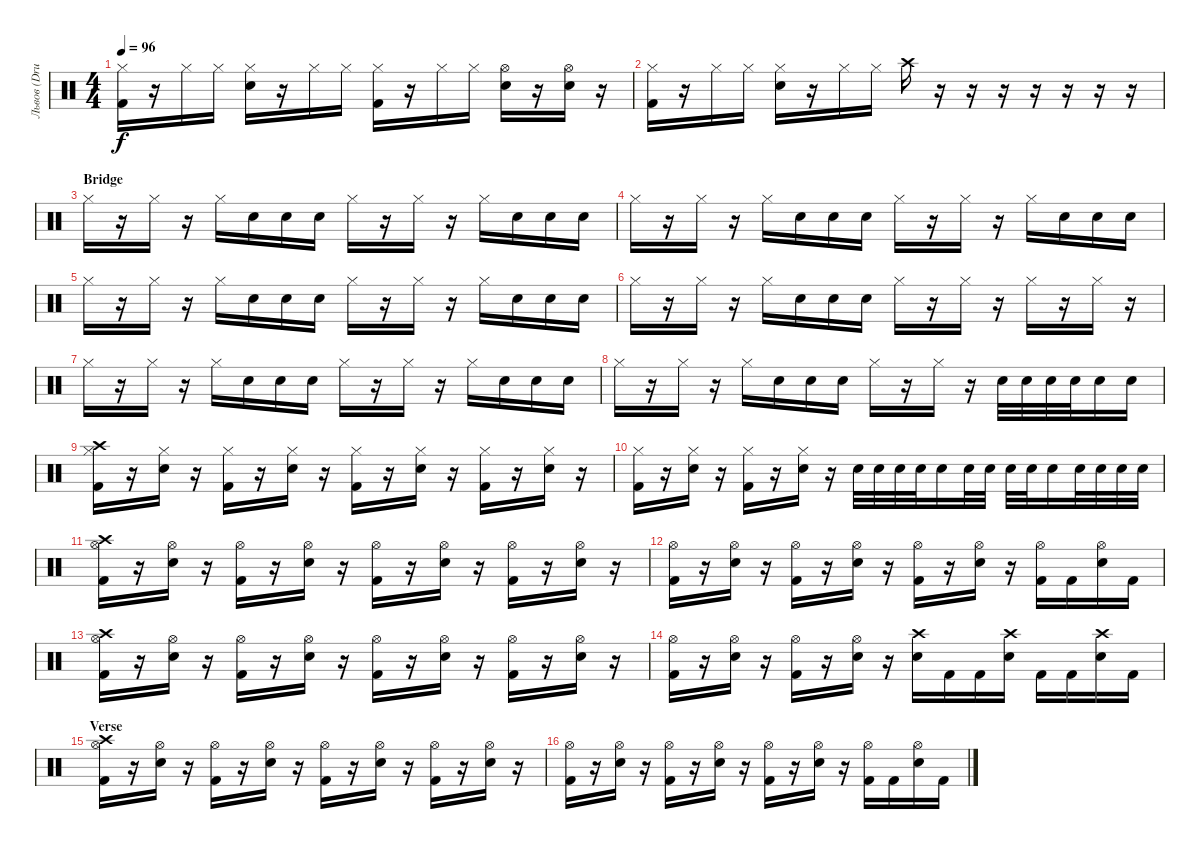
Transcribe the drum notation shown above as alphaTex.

\track ("Львов (Drums)" "Львов (Dru") {instrument percussion}
\staff {score}
\articulation defaults
\ts (4 4)
\tempo 96
\clef neutral
\ks c
("Kick (hit) 2" "Hi-Hat (closed)").16{dy f} r.16 "Hi-Hat (closed)".16 "Hi-Hat (closed)".16 ("Electric Snare (hit)" "Hi-Hat (closed)").16 r.16 "Hi-Hat (closed)".16 "Hi-Hat (closed)".16 ("Kick (hit) 2" "Hi-Hat (closed)").16 r.16 "Hi-Hat (closed)".16 "Hi-Hat (closed)".16 ("Electric Snare (hit)" "Hi-Hat (open)").16 r.16 ("Electric Snare (hit)" "Hi-Hat (open)").16 r.16 |
("Kick (hit) 2" "Hi-Hat (closed)").16 r.16 "Hi-Hat (closed)".16 "Hi-Hat (closed)".16 ("Electric Snare (hit)" "Hi-Hat (closed)").16 r.16 "Hi-Hat (closed)".16 "Hi-Hat (closed)".16 "Crash high (hit)".16 r.16 r.16 r.16 r.16 r.16 r.16 r.16 |
\section ("" "Bridge")
"Hi-Hat (closed)".16 r.16 "Hi-Hat (closed)".16 r.16 "Hi-Hat (closed)".16 "Electric Snare (hit)".16 "Electric Snare (hit)".16 "Electric Snare (hit)".16 "Hi-Hat (closed)".16 r.16 "Hi-Hat (closed)".16 r.16 "Hi-Hat (closed)".16 "Electric Snare (hit)".16 "Electric Snare (hit)".16 "Electric Snare (hit)".16 |
"Hi-Hat (closed)".16 r.16 "Hi-Hat (closed)".16 r.16 "Hi-Hat (closed)".16 "Electric Snare (hit)".16 "Electric Snare (hit)".16 "Electric Snare (hit)".16 "Hi-Hat (closed)".16 r.16 "Hi-Hat (closed)".16 r.16 "Hi-Hat (closed)".16 "Electric Snare (hit)".16 "Electric Snare (hit)".16 "Electric Snare (hit)".16 |
"Hi-Hat (closed)".16 r.16 "Hi-Hat (closed)".16 r.16 "Hi-Hat (closed)".16 "Electric Snare (hit)".16 "Electric Snare (hit)".16 "Electric Snare (hit)".16 "Hi-Hat (closed)".16 r.16 "Hi-Hat (closed)".16 r.16 "Hi-Hat (closed)".16 "Electric Snare (hit)".16 "Electric Snare (hit)".16 "Electric Snare (hit)".16 |
"Hi-Hat (closed)".16 r.16 "Hi-Hat (closed)".16 r.16 "Hi-Hat (closed)".16 "Electric Snare (hit)".16 "Electric Snare (hit)".16 "Electric Snare (hit)".16 "Hi-Hat (closed)".16 r.16 "Hi-Hat (closed)".16 r.16 "Hi-Hat (closed)".16 r.16 "Hi-Hat (closed)".16 r.16 |
"Hi-Hat (closed)".16 r.16 "Hi-Hat (closed)".16 r.16 "Hi-Hat (closed)".16 "Electric Snare (hit)".16 "Electric Snare (hit)".16 "Electric Snare (hit)".16 "Hi-Hat (closed)".16 r.16 "Hi-Hat (closed)".16 r.16 "Hi-Hat (closed)".16 "Electric Snare (hit)".16 "Electric Snare (hit)".16 "Electric Snare (hit)".16 |
"Hi-Hat (closed)".16 r.16 "Hi-Hat (closed)".16 r.16 "Hi-Hat (closed)".16 "Electric Snare (hit)".16 "Electric Snare (hit)".16 "Electric Snare (hit)".16 "Hi-Hat (closed)".16 r.16 "Hi-Hat (closed)".16 r.16 "Electric Snare (hit)".32 "Electric Snare (hit)".32 "Electric Snare (hit)".32 "Electric Snare (hit)".32 "Electric Snare (hit)".16 "Electric Snare (hit)".16 |
("Kick (hit) 2" "Crash high (hit)" "Hi-Hat (closed)").16 r.16 ("Electric Snare (hit)" "Hi-Hat (closed)").16 r.16 ("Kick (hit) 2" "Hi-Hat (closed)").16 r.16 ("Electric Snare (hit)" "Hi-Hat (closed)").16 r.16 ("Kick (hit) 2" "Hi-Hat (closed)").16 r.16 ("Electric Snare (hit)" "Hi-Hat (closed)").16 r.16 ("Kick (hit) 2" "Hi-Hat (closed)").16 r.16 ("Electric Snare (hit)" "Hi-Hat (closed)").16 r.16 |
("Kick (hit) 2" "Hi-Hat (closed)").16 r.16 ("Electric Snare (hit)" "Hi-Hat (closed)").16 r.16 ("Kick (hit) 2" "Hi-Hat (closed)").16 r.16 ("Electric Snare (hit)" "Hi-Hat (closed)").16 r.16 "Electric Snare (hit)".32 "Electric Snare (hit)".32 "Electric Snare (hit)".32 "Electric Snare (hit)".32 "Electric Snare (hit)".16 "Electric Snare (hit)".32 "Electric Snare (hit)".32 "Electric Snare (hit)".32 "Electric Snare (hit)".32 "Electric Snare (hit)".16 "Electric Snare (hit)".32 "Electric Snare (hit)".32 "Electric Snare (hit)".32 "Electric Snare (hit)".32 |
("Kick (hit) 2" "Crash high (hit)" "Hi-Hat (open)").16 r.16 ("Electric Snare (hit)" "Hi-Hat (open)").16 r.16 ("Kick (hit) 2" "Hi-Hat (open)").16 r.16 ("Electric Snare (hit)" "Hi-Hat (open)").16 r.16 ("Kick (hit) 2" "Hi-Hat (open)").16 r.16 ("Electric Snare (hit)" "Hi-Hat (open)").16 r.16 ("Kick (hit) 2" "Hi-Hat (open)").16 r.16 ("Electric Snare (hit)" "Hi-Hat (open)").16 r.16 |
("Kick (hit) 2" "Hi-Hat (open)").16 r.16 ("Electric Snare (hit)" "Hi-Hat (open)").16 r.16 ("Kick (hit) 2" "Hi-Hat (open)").16 r.16 ("Electric Snare (hit)" "Hi-Hat (open)").16 r.16 ("Kick (hit) 2" "Hi-Hat (open)").16 r.16 ("Electric Snare (hit)" "Hi-Hat (open)").16 r.16 ("Kick (hit) 2" "Hi-Hat (open)").16 "Kick (hit) 2".16 ("Electric Snare (hit)" "Hi-Hat (open)").16 "Kick (hit) 2".16 |
("Kick (hit) 2" "Crash high (hit)" "Hi-Hat (open)").16 r.16 ("Electric Snare (hit)" "Hi-Hat (open)").16 r.16 ("Kick (hit) 2" "Hi-Hat (open)").16 r.16 ("Electric Snare (hit)" "Hi-Hat (open)").16 r.16 ("Kick (hit) 2" "Hi-Hat (open)").16 r.16 ("Electric Snare (hit)" "Hi-Hat (open)").16 r.16 ("Kick (hit) 2" "Hi-Hat (open)").16 r.16 ("Electric Snare (hit)" "Hi-Hat (open)").16 r.16 |
("Kick (hit) 2" "Hi-Hat (open)").16 r.16 ("Electric Snare (hit)" "Hi-Hat (open)").16 r.16 ("Kick (hit) 2" "Hi-Hat (open)").16 r.16 ("Electric Snare (hit)" "Hi-Hat (open)").16 r.16 ("Electric Snare (hit)" "Crash high (hit)").16 "Kick (hit) 2".16 "Kick (hit) 2".16 ("Electric Snare (hit)" "Crash high (hit)").16 "Kick (hit) 2".16 "Kick (hit) 2".16 ("Electric Snare (hit)" "Crash high (hit)").16 "Kick (hit) 2".16 |
\section ("" "Verse")
("Kick (hit) 2" "Crash high (hit)" "Hi-Hat (open)").16 r.16 ("Electric Snare (hit)" "Hi-Hat (open)").16 r.16 ("Kick (hit) 2" "Hi-Hat (open)").16 r.16 ("Electric Snare (hit)" "Hi-Hat (open)").16 r.16 ("Kick (hit) 2" "Hi-Hat (open)").16 r.16 ("Electric Snare (hit)" "Hi-Hat (open)").16 r.16 ("Kick (hit) 2" "Hi-Hat (open)").16 r.16 ("Electric Snare (hit)" "Hi-Hat (open)").16 r.16 |
("Kick (hit) 2" "Hi-Hat (open)").16 r.16 ("Electric Snare (hit)" "Hi-Hat (open)").16 r.16 ("Kick (hit) 2" "Hi-Hat (open)").16 r.16 ("Electric Snare (hit)" "Hi-Hat (open)").16 r.16 ("Kick (hit) 2" "Hi-Hat (open)").16 r.16 ("Electric Snare (hit)" "Hi-Hat (open)").16 r.16 ("Kick (hit) 2" "Hi-Hat (open)").16 "Kick (hit) 2".16 ("Electric Snare (hit)" "Hi-Hat (open)").16 "Kick (hit) 2".16
